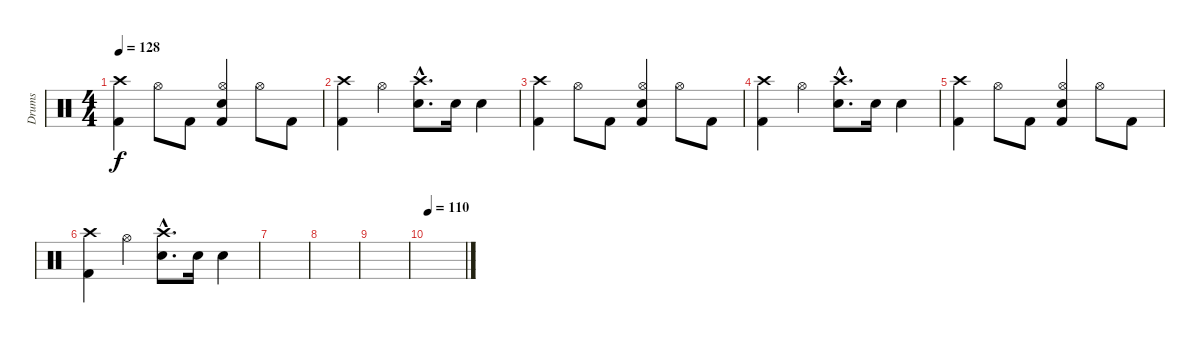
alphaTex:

\track ("Drums" "Drums") {instrument percussion}
\staff {score}
\articulation defaults
\ts (4 4)
\tempo 128
\clef neutral
\ks c
("Crash high (hit)" "Kick (hit) 2").4{dy f} "Hi-Hat (open)".8 "Kick (hit) 2".8 ("Hi-Hat (open)" "Kick (hit) 2" "Snare (hit) 2").4 "Hi-Hat (open)".8 "Kick (hit) 2".8 |
("Crash high (hit)" "Kick (hit) 2").4 "Hi-Hat (open)".4 ("Crash high (hit)"{hac} "Snare (hit) 2"{hac}).8{d} "Snare (hit) 2".16 "Snare (hit) 2".4 |
("Crash high (hit)" "Kick (hit) 2").4 "Hi-Hat (open)".8 "Kick (hit) 2".8 ("Hi-Hat (open)" "Kick (hit) 2" "Snare (hit) 2").4 "Hi-Hat (open)".8 "Kick (hit) 2".8 |
("Crash high (hit)" "Kick (hit) 2").4 "Hi-Hat (open)".4 ("Crash high (hit)"{hac} "Snare (hit) 2"{hac}).8{d} "Snare (hit) 2".16 "Snare (hit) 2".4 |
("Crash high (hit)" "Kick (hit) 2").4 "Hi-Hat (open)".8 "Kick (hit) 2".8 ("Hi-Hat (open)" "Kick (hit) 2" "Snare (hit) 2").4 "Hi-Hat (open)".8 "Kick (hit) 2".8 |
("Crash high (hit)" "Kick (hit) 2").4 "Hi-Hat (open)".4 ("Crash high (hit)"{hac} "Snare (hit) 2"{hac}).8{d} "Snare (hit) 2".16 "Snare (hit) 2".4 |
|
|
|
\tempo 110
